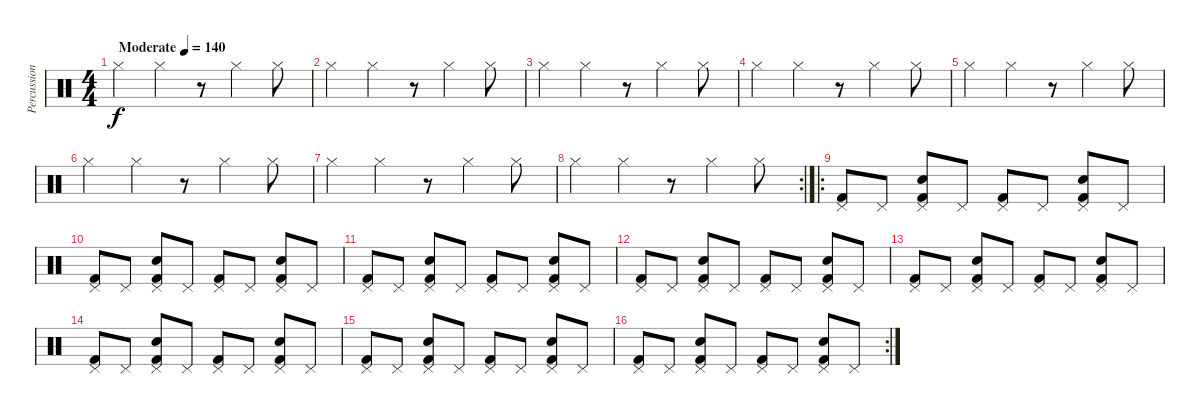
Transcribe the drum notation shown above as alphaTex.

\track ("Percussion" "Percussion") {instrument percussion}
\staff {score}
\articulation defaults
\ts (4 4)
\tempo (140 "Moderate")
\clef neutral
\ks c "Hi-Hat (closed)".4{dy f} "Hi-Hat (closed)".4
r.8 "Hi-Hat (closed)".4 "Hi-Hat (closed)".8 |
"Hi-Hat (closed)".4 "Hi-Hat (closed)".4 r.8 "Hi-Hat (closed)".4 "Hi-Hat (closed)".8 |
"Hi-Hat (closed)".4 "Hi-Hat (closed)".4 r.8 "Hi-Hat (closed)".4 "Hi-Hat (closed)".8 |
"Hi-Hat (closed)".4 "Hi-Hat (closed)".4 r.8 "Hi-Hat (closed)".4 "Hi-Hat (closed)".8 |
"Hi-Hat (closed)".4 "Hi-Hat (closed)".4 r.8 "Hi-Hat (closed)".4 "Hi-Hat (closed)".8 |
"Hi-Hat (closed)".4 "Hi-Hat (closed)".4 r.8 "Hi-Hat (closed)".4 "Hi-Hat (closed)".8 |
"Hi-Hat (closed)".4 "Hi-Hat (closed)".4 r.8 "Hi-Hat (closed)".4 "Hi-Hat (closed)".8 |
\rc 2 "Hi-Hat (closed)".4 "Hi-Hat (closed)".4
r.8 "Hi-Hat (closed)".4 "Hi-Hat (closed)".8 |
\ro
("Kick (hit) 2" "Pedal Hi-Hat (hit)").8 "Pedal Hi-Hat (hit)".8 ("Electric Snare (hit)" "Kick (hit) 2" "Pedal Hi-Hat (hit)").8 "Pedal Hi-Hat (hit)".8 ("Kick (hit) 2" "Pedal Hi-Hat (hit)").8 "Pedal Hi-Hat (hit)".8 ("Electric Snare (hit)" "Kick (hit) 2" "Pedal Hi-Hat (hit)").8 "Pedal Hi-Hat (hit)".8 |
("Kick (hit) 2" "Pedal Hi-Hat (hit)").8 "Pedal Hi-Hat (hit)".8 ("Electric Snare (hit)" "Kick (hit) 2" "Pedal Hi-Hat (hit)").8 "Pedal Hi-Hat (hit)".8 ("Kick (hit) 2" "Pedal Hi-Hat (hit)").8 "Pedal Hi-Hat (hit)".8 ("Electric Snare (hit)" "Kick (hit) 2" "Pedal Hi-Hat (hit)").8 "Pedal Hi-Hat (hit)".8 |
("Kick (hit) 2" "Pedal Hi-Hat (hit)").8 "Pedal Hi-Hat (hit)".8 ("Electric Snare (hit)" "Kick (hit) 2" "Pedal Hi-Hat (hit)").8 "Pedal Hi-Hat (hit)".8 ("Kick (hit) 2" "Pedal Hi-Hat (hit)").8 "Pedal Hi-Hat (hit)".8 ("Electric Snare (hit)" "Kick (hit) 2" "Pedal Hi-Hat (hit)").8 "Pedal Hi-Hat (hit)".8 |
("Kick (hit) 2" "Pedal Hi-Hat (hit)").8 "Pedal Hi-Hat (hit)".8 ("Electric Snare (hit)" "Kick (hit) 2" "Pedal Hi-Hat (hit)").8 "Pedal Hi-Hat (hit)".8 ("Kick (hit) 2" "Pedal Hi-Hat (hit)").8 "Pedal Hi-Hat (hit)".8 ("Electric Snare (hit)" "Kick (hit) 2" "Pedal Hi-Hat (hit)").8 "Pedal Hi-Hat (hit)".8 |
("Kick (hit) 2" "Pedal Hi-Hat (hit)").8 "Pedal Hi-Hat (hit)".8 ("Electric Snare (hit)" "Kick (hit) 2" "Pedal Hi-Hat (hit)").8 "Pedal Hi-Hat (hit)".8 ("Kick (hit) 2" "Pedal Hi-Hat (hit)").8 "Pedal Hi-Hat (hit)".8 ("Electric Snare (hit)" "Kick (hit) 2" "Pedal Hi-Hat (hit)").8 "Pedal Hi-Hat (hit)".8 |
("Kick (hit) 2" "Pedal Hi-Hat (hit)").8 "Pedal Hi-Hat (hit)".8 ("Electric Snare (hit)" "Kick (hit) 2" "Pedal Hi-Hat (hit)").8 "Pedal Hi-Hat (hit)".8 ("Kick (hit) 2" "Pedal Hi-Hat (hit)").8 "Pedal Hi-Hat (hit)".8 ("Electric Snare (hit)" "Kick (hit) 2" "Pedal Hi-Hat (hit)").8 "Pedal Hi-Hat (hit)".8 |
("Kick (hit) 2" "Pedal Hi-Hat (hit)").8 "Pedal Hi-Hat (hit)".8 ("Electric Snare (hit)" "Kick (hit) 2" "Pedal Hi-Hat (hit)").8 "Pedal Hi-Hat (hit)".8 ("Kick (hit) 2" "Pedal Hi-Hat (hit)").8 "Pedal Hi-Hat (hit)".8 ("Electric Snare (hit)" "Kick (hit) 2" "Pedal Hi-Hat (hit)").8 "Pedal Hi-Hat (hit)".8 |
\rc 2
("Kick (hit) 2" "Pedal Hi-Hat (hit)").8 "Pedal Hi-Hat (hit)".8 ("Electric Snare (hit)" "Kick (hit) 2" "Pedal Hi-Hat (hit)").8 "Pedal Hi-Hat (hit)".8 ("Kick (hit) 2" "Pedal Hi-Hat (hit)").8 "Pedal Hi-Hat (hit)".8 ("Electric Snare (hit)" "Kick (hit) 2" "Pedal Hi-Hat (hit)").8 "Pedal Hi-Hat (hit)".8
